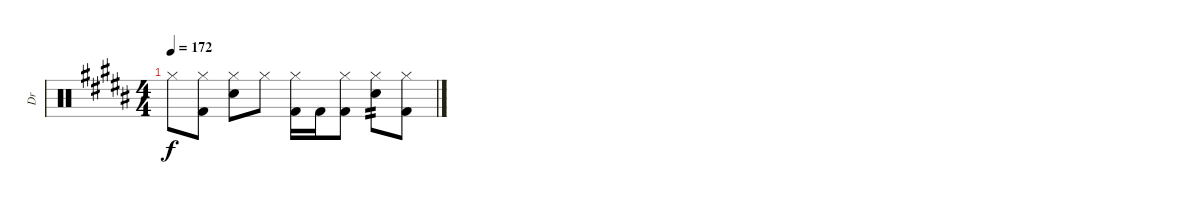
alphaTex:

\track ("Dr" "Dr") {instrument percussion}
\staff {score}
\articulation defaults
\ts (4 4)
\tempo 172
\clef neutral
\ks b "Hi-Hat (closed)".8{dy f}
("Hi-Hat (closed)" "Kick (hit) 2").8 ("Hi-Hat (closed)" "Electric Snare (hit)").8 "Hi-Hat (closed)".8 ("Hi-Hat (closed)" "Kick (hit) 2").16 "Kick (hit) 2".16 ("Hi-Hat (closed)" "Kick (hit) 2").8 ("Hi-Hat (closed)" "Electric Snare (hit)").8{tp 2} ("Hi-Hat (closed)" "Kick (hit) 2").8
